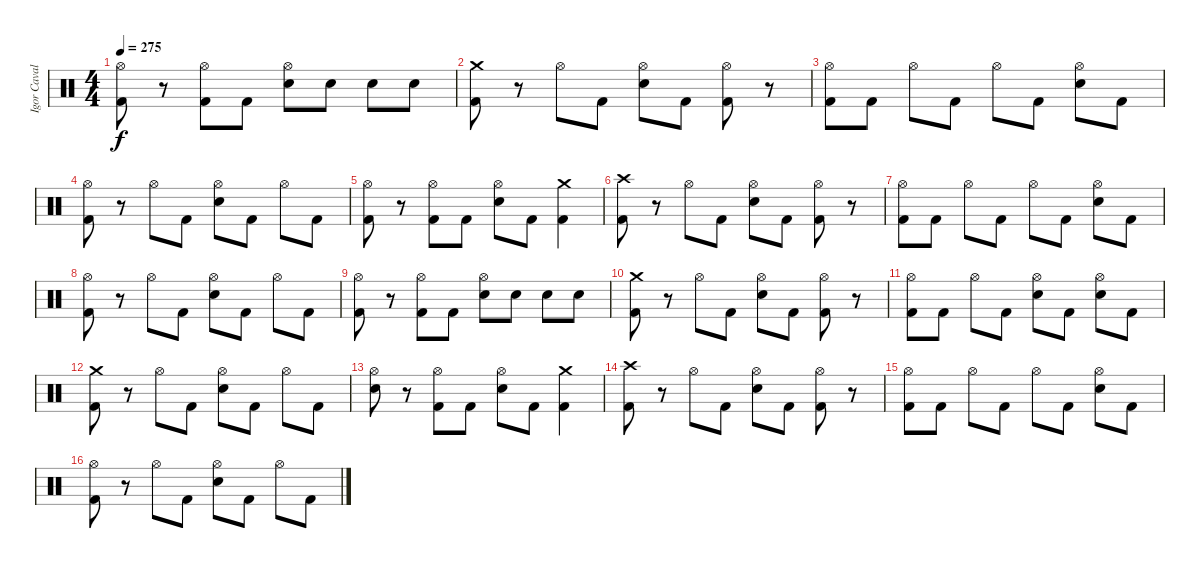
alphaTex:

\track ("Igor Cavalera" "Igor Caval") {instrument percussion}
\staff {score}
\articulation defaults
\ts (4 4)
\tempo 275
\clef neutral
\ks c
("Kick (hit) 2" "Hi-Hat (open)").8{dy f} r.8 ("Kick (hit) 2" "Hi-Hat (open)").8 "Kick (hit) 2".8 ("Electric Snare (hit)" "Hi-Hat (open)").8 "Electric Snare (hit)".8 "Electric Snare (hit)".8 "Electric Snare (hit)".8 |
("Crash medium (hit)" "Kick (hit) 2").8 r.8 "Hi-Hat (open)".8 "Kick (hit) 2".8 ("Electric Snare (hit)" "Hi-Hat (open)").8 "Kick (hit) 2".8 ("Kick (hit) 2" "Hi-Hat (open)").8 r.8 |
("Kick (hit) 2" "Hi-Hat (open)").8 "Kick (hit) 2".8 "Hi-Hat (open)".8 "Kick (hit) 2".8 "Hi-Hat (open)".8 "Kick (hit) 2".8 ("Electric Snare (hit)" "Hi-Hat (open)").8 "Kick (hit) 2".8 |
("Kick (hit) 2" "Hi-Hat (open)").8 r.8 "Hi-Hat (open)".8 "Kick (hit) 2".8 ("Electric Snare (hit)" "Hi-Hat (open)").8 "Kick (hit) 2".8 "Hi-Hat (open)".8 "Kick (hit) 2".8 |
("Kick (hit) 2" "Hi-Hat (open)").8 r.8 ("Kick (hit) 2" "Hi-Hat (open)").8 "Kick (hit) 2".8 ("Electric Snare (hit)" "Hi-Hat (open)").8 "Kick (hit) 2".8 ("Kick (hit) 2" "Crash medium (hit)").4 |
("Crash high (hit)" "Kick (hit) 2").8 r.8 "Hi-Hat (open)".8 "Kick (hit) 2".8 ("Electric Snare (hit)" "Hi-Hat (open)").8 "Kick (hit) 2".8 ("Kick (hit) 2" "Hi-Hat (open)").8 r.8 |
("Kick (hit) 2" "Hi-Hat (open)").8 "Kick (hit) 2".8 "Hi-Hat (open)".8 "Kick (hit) 2".8 "Hi-Hat (open)".8 "Kick (hit) 2".8 ("Electric Snare (hit)" "Hi-Hat (open)").8 "Kick (hit) 2".8 |
("Kick (hit) 2" "Hi-Hat (open)").8 r.8 "Hi-Hat (open)".8 "Kick (hit) 2".8 ("Electric Snare (hit)" "Hi-Hat (open)").8 "Kick (hit) 2".8 "Hi-Hat (open)".8 "Kick (hit) 2".8 |
("Kick (hit) 2" "Hi-Hat (open)").8 r.8 ("Kick (hit) 2" "Hi-Hat (open)").8 "Kick (hit) 2".8 ("Electric Snare (hit)" "Hi-Hat (open)").8 "Electric Snare (hit)".8 "Electric Snare (hit)".8 "Electric Snare (hit)".8 |
("Crash medium (hit)" "Kick (hit) 2").8 r.8 "Hi-Hat (open)".8 "Kick (hit) 2".8 ("Electric Snare (hit)" "Hi-Hat (open)").8 "Kick (hit) 2".8 ("Kick (hit) 2" "Hi-Hat (open)").8 r.8 |
("Kick (hit) 2" "Hi-Hat (open)").8 "Kick (hit) 2".8 "Hi-Hat (open)".8 "Kick (hit) 2".8 ("Electric Snare (hit)" "Hi-Hat (open)").8 "Kick (hit) 2".8 ("Electric Snare (hit)" "Hi-Hat (open)").8 "Kick (hit) 2".8 |
("Kick (hit) 2" "Crash medium (hit)").8 r.8 "Hi-Hat (open)".8 "Kick (hit) 2".8 ("Electric Snare (hit)" "Hi-Hat (open)").8 "Kick (hit) 2".8 "Hi-Hat (open)".8 "Kick (hit) 2".8 |
("Electric Snare (hit)" "Hi-Hat (open)").8 r.8 ("Kick (hit) 2" "Hi-Hat (open)").8 "Kick (hit) 2".8 ("Electric Snare (hit)" "Hi-Hat (open)").8 "Kick (hit) 2".8 ("Kick (hit) 2" "Crash medium (hit)").4 |
("Crash high (hit)" "Kick (hit) 2").8 r.8 "Hi-Hat (open)".8 "Kick (hit) 2".8 ("Electric Snare (hit)" "Hi-Hat (open)").8 "Kick (hit) 2".8 ("Kick (hit) 2" "Hi-Hat (open)").8 r.8 |
("Kick (hit) 2" "Hi-Hat (open)").8 "Kick (hit) 2".8 "Hi-Hat (open)".8 "Kick (hit) 2".8 "Hi-Hat (open)".8 "Kick (hit) 2".8 ("Electric Snare (hit)" "Hi-Hat (open)").8 "Kick (hit) 2".8 |
("Kick (hit) 2" "Hi-Hat (open)").8 r.8 "Hi-Hat (open)".8 "Kick (hit) 2".8 ("Electric Snare (hit)" "Hi-Hat (open)").8 "Kick (hit) 2".8 "Hi-Hat (open)".8 "Kick (hit) 2".8
